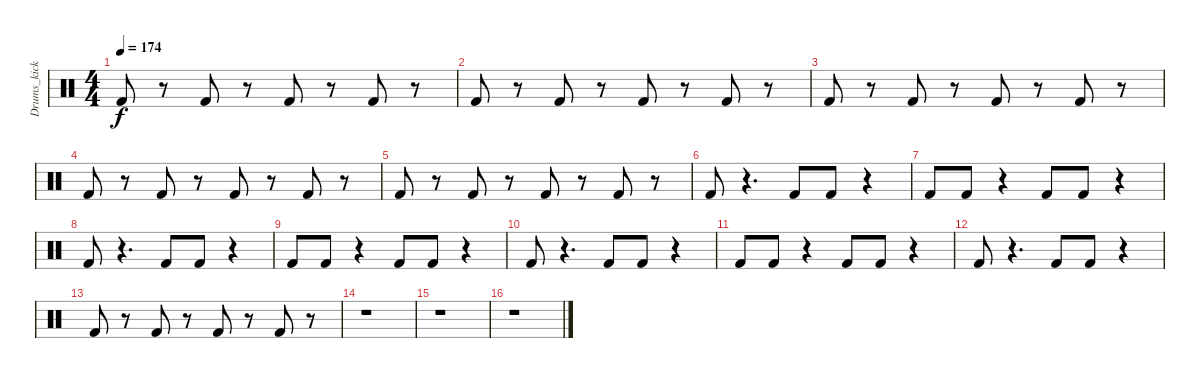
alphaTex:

\track ("Drums_kick" "Drums_kick") {instrument percussion}
\staff {score}
\articulation defaults
\ts (4 4)
\tempo 174
\clef neutral
\ks c "Kick (hit) 2".8{dy f}
r.8 "Kick (hit) 2".8 r.8 "Kick (hit) 2".8 r.8 "Kick (hit) 2".8 r.8 |
"Kick (hit) 2".8 r.8 "Kick (hit) 2".8 r.8 "Kick (hit) 2".8 r.8 "Kick (hit) 2".8 r.8 |
"Kick (hit) 2".8 r.8 "Kick (hit) 2".8 r.8 "Kick (hit) 2".8 r.8 "Kick (hit) 2".8 r.8 |
"Kick (hit) 2".8 r.8 "Kick (hit) 2".8 r.8 "Kick (hit) 2".8 r.8 "Kick (hit) 2".8 r.8 |
"Kick (hit) 2".8 r.8 "Kick (hit) 2".8 r.8 "Kick (hit) 2".8 r.8 "Kick (hit) 2".8 r.8 |
"Kick (hit) 2".8 r.4{d} "Kick (hit) 2".8 "Kick (hit) 2".8 r.4 |
"Kick (hit) 2".8 "Kick (hit) 2".8 r.4 "Kick (hit) 2".8 "Kick (hit) 2".8 r.4 |
"Kick (hit) 2".8 r.4{d} "Kick (hit) 2".8 "Kick (hit) 2".8 r.4 |
"Kick (hit) 2".8 "Kick (hit) 2".8 r.4 "Kick (hit) 2".8 "Kick (hit) 2".8 r.4 |
"Kick (hit) 2".8 r.4{d} "Kick (hit) 2".8 "Kick (hit) 2".8 r.4 |
"Kick (hit) 2".8 "Kick (hit) 2".8 r.4 "Kick (hit) 2".8 "Kick (hit) 2".8 r.4 |
"Kick (hit) 2".8 r.4{d} "Kick (hit) 2".8 "Kick (hit) 2".8 r.4 |
"Kick (hit) 2".8 r.8 "Kick (hit) 2".8 r.8 "Kick (hit) 2".8 r.8 "Kick (hit) 2".8 r.8 |
r.1 |
r.1 |
r.1
